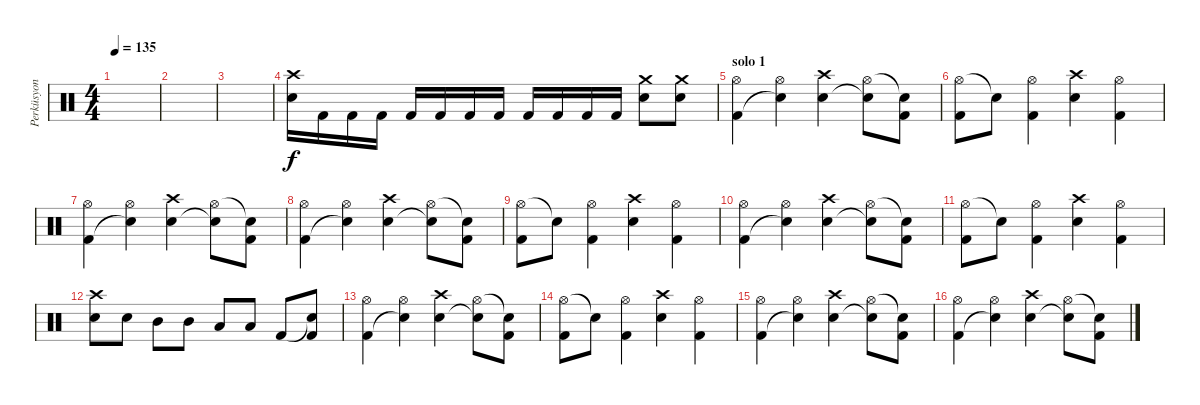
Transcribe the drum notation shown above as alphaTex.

\track ("Perküsyon" "Perküsyon") {instrument percussion}
\staff {score}
\articulation defaults
\ts (4 4)
\tempo 135
\clef neutral
\ks c
|
|
|
("Snare (hit) 2" "Crash high (hit)").16 "Kick (hit) 2".16 "Kick (hit) 2".16 "Kick (hit) 2".16 "Kick (hit) 2".16 "Kick (hit) 2".16 "Kick (hit) 2".16 "Kick (hit) 2".16 "Kick (hit) 2".16 "Kick (hit) 2".16 "Kick (hit) 2".16 "Kick (hit) 2".16 ("Crash medium (hit)" "Snare (hit) 2").8 ("Crash medium (hit)" "Snare (hit) 2").8 |
\section ("" "solo 1")
("Hi-Hat (open)" "Kick (hit) 2").4 ("Hi-Hat (open)" "Snare (hit)"{t}).4 ("Crash high (hit)" "Snare (hit) 2").4 ("Hi-Hat (open)" "Snare (hit)"{t}).8 ("Snare (hit)"{t} "Kick (hit) 2").8 |
("Hi-Hat (open)" "Kick (hit) 2").8 "Snare (hit)"{t}.8 ("Hi-Hat (open)" "Kick (hit) 2").4 ("Crash high (hit)" "Snare (hit) 2").4 ("Hi-Hat (open)" "Kick (hit) 2").4 |
("Hi-Hat (open)" "Kick (hit) 2").4 ("Hi-Hat (open)" "Snare (hit)"{t}).4 ("Crash high (hit)" "Snare (hit) 2").4 ("Hi-Hat (open)" "Snare (hit)"{t}).8 ("Snare (hit)"{t} "Kick (hit) 2").8 |
("Hi-Hat (open)" "Kick (hit) 2").4 ("Hi-Hat (open)" "Snare (hit)"{t}).4 ("Crash high (hit)" "Snare (hit) 2").4 ("Hi-Hat (open)" "Snare (hit)"{t}).8 ("Snare (hit)"{t} "Kick (hit) 2").8 |
("Hi-Hat (open)" "Kick (hit) 2").8 "Snare (hit)"{t}.8 ("Hi-Hat (open)" "Kick (hit) 2").4 ("Crash high (hit)" "Snare (hit) 2").4 ("Hi-Hat (open)" "Kick (hit) 2").4 |
("Hi-Hat (open)" "Kick (hit) 2").4 ("Hi-Hat (open)" "Snare (hit)"{t}).4 ("Crash high (hit)" "Snare (hit) 2").4 ("Hi-Hat (open)" "Snare (hit)"{t}).8 ("Snare (hit)"{t} "Kick (hit) 2").8 |
("Hi-Hat (open)" "Kick (hit) 2").8 "Snare (hit)"{t}.8 ("Hi-Hat (open)" "Kick (hit) 2").4 ("Crash high (hit)" "Snare (hit) 2").4 ("Hi-Hat (open)" "Kick (hit) 2").4 |
("Crash high (hit)" "Snare (hit) 2").8 "Snare (hit) 2".8 "Mid Tom (hit)".8 "Mid Tom (hit)".8 "Low Tom (hit)".8 "Low Tom (hit)".8 "Kick (hit) 2".8 ("Snare (hit)"{t} "Kick (hit) 2").8 |
("Hi-Hat (open)" "Kick (hit) 2").4 ("Hi-Hat (open)" "Snare (hit)"{t}).4 ("Crash high (hit)" "Snare (hit) 2").4 ("Hi-Hat (open)" "Snare (hit)"{t}).8 ("Snare (hit)"{t} "Kick (hit) 2").8 |
("Hi-Hat (open)" "Kick (hit) 2").8 "Snare (hit)"{t}.8 ("Hi-Hat (open)" "Kick (hit) 2").4 ("Crash high (hit)" "Snare (hit) 2").4 ("Hi-Hat (open)" "Kick (hit) 2").4 |
("Hi-Hat (open)" "Kick (hit) 2").4 ("Hi-Hat (open)" "Snare (hit)"{t}).4 ("Crash high (hit)" "Snare (hit) 2").4 ("Hi-Hat (open)" "Snare (hit)"{t}).8 ("Snare (hit)"{t} "Kick (hit) 2").8 |
("Hi-Hat (open)" "Kick (hit) 2").4 ("Hi-Hat (open)" "Snare (hit)"{t}).4 ("Crash high (hit)" "Snare (hit) 2").4 ("Hi-Hat (open)" "Snare (hit)"{t}).8 ("Snare (hit)"{t} "Kick (hit) 2").8
